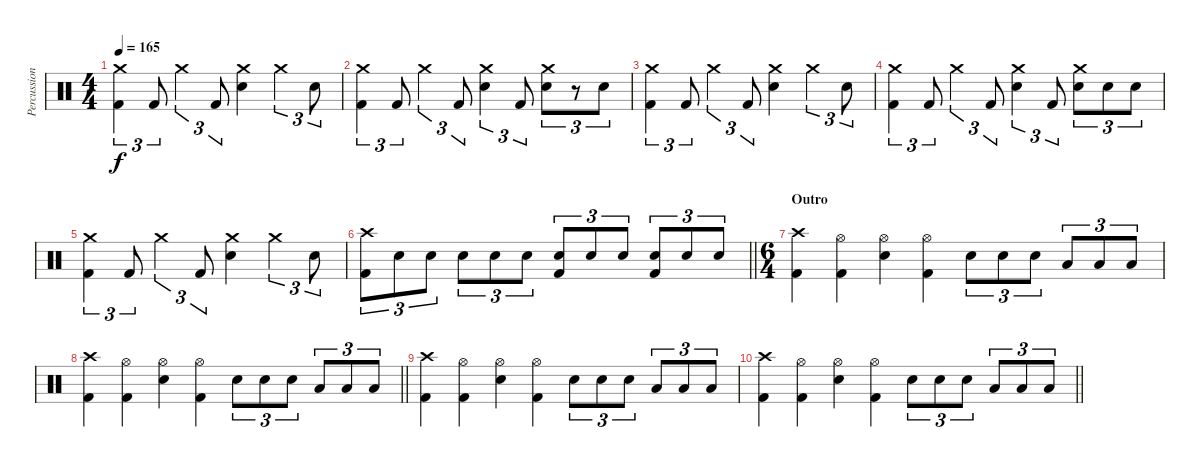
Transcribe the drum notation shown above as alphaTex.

\track ("Percussion" "Percussion") {instrument percussion}
\staff {score}
\articulation defaults
\ts (4 4)
\tempo 165
\clef neutral
\ks c
("Crash medium (hit)" "Kick (hit) 2").4{tu (3 2) dy f} "Kick (hit) 2".8{tu (3 2)} "Crash medium (hit)".4{tu (3 2)} "Kick (hit) 2".8{tu (3 2)} ("Crash medium (hit)" "Electric Snare (hit)").4 "Crash medium (hit)".4{tu (3 2)} "Electric Snare (hit)".8{tu (3 2)} |
("Crash medium (hit)" "Kick (hit) 2").4{tu (3 2)} "Kick (hit) 2".8{tu (3 2)} "Crash medium (hit)".4{tu (3 2)} "Kick (hit) 2".8{tu (3 2)} ("Crash medium (hit)" "Electric Snare (hit)").4{tu (3 2)} "Kick (hit) 2".8{tu (3 2)} ("Crash medium (hit)" "Electric Snare (hit)").8{tu (3 2)} r.8{tu (3 2)} "Electric Snare (hit)".8{tu (3 2)} |
("Crash medium (hit)" "Kick (hit) 2").4{tu (3 2)} "Kick (hit) 2".8{tu (3 2)} "Crash medium (hit)".4{tu (3 2)} "Kick (hit) 2".8{tu (3 2)} ("Crash medium (hit)" "Electric Snare (hit)").4 "Crash medium (hit)".4{tu (3 2)} "Electric Snare (hit)".8{tu (3 2)} |
("Crash medium (hit)" "Kick (hit) 2").4{tu (3 2)} "Kick (hit) 2".8{tu (3 2)} "Crash medium (hit)".4{tu (3 2)} "Kick (hit) 2".8{tu (3 2)} ("Crash medium (hit)" "Electric Snare (hit)").4{tu (3 2)} "Kick (hit) 2".8{tu (3 2)} ("Crash medium (hit)" "Electric Snare (hit)").8{tu (3 2)} "Electric Snare (hit)".8{tu (3 2)} "Electric Snare (hit)".8{tu (3 2)} |
("Crash medium (hit)" "Kick (hit) 2").4{tu (3 2)} "Kick (hit) 2".8{tu (3 2)} "Crash medium (hit)".4{tu (3 2)} "Kick (hit) 2".8{tu (3 2)} ("Crash medium (hit)" "Electric Snare (hit)").4 "Crash medium (hit)".4{tu (3 2)} "Electric Snare (hit)".8{tu (3 2)} |
\barLineRight lightlight
("Crash high (hit)" "Kick (hit) 2").8{tu (3 2)} "Electric Snare (hit)".8{tu (3 2)} "Electric Snare (hit)".8{tu (3 2)} "Electric Snare (hit)".8{tu (3 2)} "Electric Snare (hit)".8{tu (3 2)} "Electric Snare (hit)".8{tu (3 2)} ("Electric Snare (hit)" "Kick (hit) 2").8{tu (3 2)} "Electric Snare (hit)".8{tu (3 2)} "Electric Snare (hit)".8{tu (3 2)} ("Electric Snare (hit)" "Kick (hit) 2").8{tu (3 2)} "Electric Snare (hit)".8{tu (3 2)} "Electric Snare (hit)".8{tu (3 2)} |
\ts (6 4)
\section ("" "Outro")
("Crash high (hit)" "Kick (hit) 2").4 ("Hi-Hat (open)" "Kick (hit) 2").4 ("Hi-Hat (open)" "Electric Snare (hit)").4 ("Hi-Hat (open)" "Kick (hit) 2").4 "Electric Snare (hit)".8{tu (3 2)} "Electric Snare (hit)".8{tu (3 2)} "Electric Snare (hit)".8{tu (3 2)} "Low Tom (hit)".8{tu (3 2)} "Low Tom (hit)".8{tu (3 2)} "Low Tom (hit)".8{tu (3 2)} |
\barLineRight lightlight
("Crash high (hit)" "Kick (hit) 2").4 ("Hi-Hat (open)" "Kick (hit) 2").4 ("Hi-Hat (open)" "Electric Snare (hit)").4 ("Hi-Hat (open)" "Kick (hit) 2").4 "Electric Snare (hit)".8{tu (3 2)} "Electric Snare (hit)".8{tu (3 2)} "Electric Snare (hit)".8{tu (3 2)} "Low Tom (hit)".8{tu (3 2)} "Low Tom (hit)".8{tu (3 2)} "Low Tom (hit)".8{tu (3 2)} |
("Crash high (hit)" "Kick (hit) 2").4 ("Hi-Hat (open)" "Kick (hit) 2").4 ("Hi-Hat (open)" "Electric Snare (hit)").4 ("Hi-Hat (open)" "Kick (hit) 2").4 "Electric Snare (hit)".8{tu (3 2)} "Electric Snare (hit)".8{tu (3 2)} "Electric Snare (hit)".8{tu (3 2)} "Low Tom (hit)".8{tu (3 2)} "Low Tom (hit)".8{tu (3 2)} "Low Tom (hit)".8{tu (3 2)} |
\barLineRight lightlight
("Crash high (hit)" "Kick (hit) 2").4 ("Hi-Hat (open)" "Kick (hit) 2").4 ("Hi-Hat (open)" "Electric Snare (hit)").4 ("Hi-Hat (open)" "Kick (hit) 2").4 "Electric Snare (hit)".8{tu (3 2)} "Electric Snare (hit)".8{tu (3 2)} "Electric Snare (hit)".8{tu (3 2)} "Low Tom (hit)".8{tu (3 2)} "Low Tom (hit)".8{tu (3 2)} "Low Tom (hit)".8{tu (3 2)}
